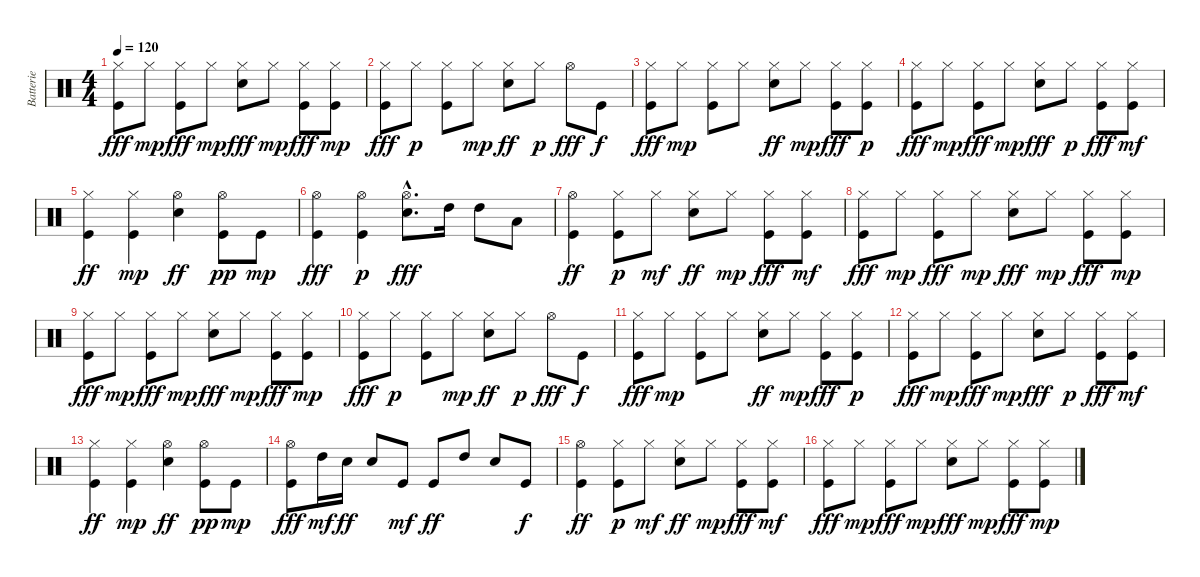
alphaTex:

\track ("Batterie" "Batterie") {instrument percussion}
\staff {score}
\articulation defaults
\ts (4 4)
\tempo 120
\clef neutral
\ks c
("Kick (hit)" "Hi-Hat (closed)").8{dy fff} "Hi-Hat (closed)".8{dy mp} ("Kick (hit)" "Hi-Hat (closed)").8{dy fff} "Hi-Hat (closed)".8{dy mp} ("Electric Snare (hit)" "Hi-Hat (closed)").8{dy fff} "Hi-Hat (closed)".8{dy mp} ("Kick (hit)" "Hi-Hat (closed)").8{dy fff} ("Hi-Hat (closed)" "Kick (hit)").8{dy mp} |
("Kick (hit)" "Hi-Hat (closed)").8{dy fff} "Hi-Hat (closed)".8{dy p} ("Hi-Hat (closed)" "Kick (hit)").8 "Hi-Hat (closed)".8{dy mp} ("Hi-Hat (closed)" "Electric Snare (hit)").8{dy ff} "Hi-Hat (closed)".8{dy p} "Hi-Hat (open)".8{dy fff} "Kick (hit)".8{dy f} |
("Kick (hit)" "Hi-Hat (closed)").8{dy fff} "Hi-Hat (closed)".8{dy mp} ("Hi-Hat (closed)" "Kick (hit)").8 "Hi-Hat (closed)".8 ("Hi-Hat (closed)" "Electric Snare (hit)").8{dy ff} "Hi-Hat (closed)".8{dy mp} ("Kick (hit)" "Hi-Hat (closed)").8{dy fff} ("Kick (hit)" "Hi-Hat (closed)").8{dy p} |
("Kick (hit)" "Hi-Hat (closed)").8{dy fff} "Hi-Hat (closed)".8{dy mp} ("Kick (hit)" "Hi-Hat (closed)").8{dy fff} "Hi-Hat (closed)".8{dy mp} ("Electric Snare (hit)" "Hi-Hat (closed)").8{dy fff} "Hi-Hat (closed)".8{dy p} ("Kick (hit)" "Hi-Hat (closed)").8{dy fff} ("Kick (hit)" "Hi-Hat (closed)").8{dy mf} |
("Kick (hit)" "Hi-Hat (closed)").4{dy ff} ("Hi-Hat (closed)" "Kick (hit)").4{dy mp} ("Hi-Hat (open)" "Electric Snare (hit)").4{dy ff} ("Hi-Hat (open)" "Kick (hit)").8{dy pp} "Kick (hit)".8{dy mp} |
("Kick (hit)" "Hi-Hat (open)").4{dy fff} ("Hi-Hat (open)" "Kick (hit)").4{dy p} ("Electric Snare (hit)"{hac} "Hi-Hat (open)"{hac}).8{d dy fff} "High Tom (hit)".16 "High Tom (hit)".8 "Low Tom (hit)".8 |
("Hi-Hat (open)" "Kick (hit)").4{dy ff} ("Hi-Hat (closed)" "Kick (hit)").8{dy p} "Hi-Hat (closed)".8{dy mf} ("Hi-Hat (closed)" "Electric Snare (hit)").8{dy ff} "Hi-Hat (closed)".8{dy mp} ("Kick (hit)" "Hi-Hat (closed)").8{dy fff} ("Kick (hit)" "Hi-Hat (closed)").8{dy mf} |
("Kick (hit)" "Hi-Hat (closed)").8{dy fff} "Hi-Hat (closed)".8{dy mp} ("Kick (hit)" "Hi-Hat (closed)").8{dy fff} "Hi-Hat (closed)".8{dy mp} ("Electric Snare (hit)" "Hi-Hat (closed)").8{dy fff} "Hi-Hat (closed)".8{dy mp} ("Kick (hit)" "Hi-Hat (closed)").8{dy fff} ("Hi-Hat (closed)" "Kick (hit)").8{dy mp} |
("Kick (hit)" "Hi-Hat (closed)").8{dy fff} "Hi-Hat (closed)".8{dy mp} ("Kick (hit)" "Hi-Hat (closed)").8{dy fff} "Hi-Hat (closed)".8{dy mp} ("Electric Snare (hit)" "Hi-Hat (closed)").8{dy fff} "Hi-Hat (closed)".8{dy mp} ("Kick (hit)" "Hi-Hat (closed)").8{dy fff} ("Hi-Hat (closed)" "Kick (hit)").8{dy mp} |
("Kick (hit)" "Hi-Hat (closed)").8{dy fff} "Hi-Hat (closed)".8{dy p} ("Hi-Hat (closed)" "Kick (hit)").8 "Hi-Hat (closed)".8{dy mp} ("Hi-Hat (closed)" "Electric Snare (hit)").8{dy ff} "Hi-Hat (closed)".8{dy p} "Hi-Hat (open)".8{dy fff} "Kick (hit)".8{dy f} |
("Kick (hit)" "Hi-Hat (closed)").8{dy fff} "Hi-Hat (closed)".8{dy mp} ("Hi-Hat (closed)" "Kick (hit)").8 "Hi-Hat (closed)".8 ("Hi-Hat (closed)" "Electric Snare (hit)").8{dy ff} "Hi-Hat (closed)".8{dy mp} ("Kick (hit)" "Hi-Hat (closed)").8{dy fff} ("Kick (hit)" "Hi-Hat (closed)").8{dy p} |
("Kick (hit)" "Hi-Hat (closed)").8{dy fff} "Hi-Hat (closed)".8{dy mp} ("Kick (hit)" "Hi-Hat (closed)").8{dy fff} "Hi-Hat (closed)".8{dy mp} ("Electric Snare (hit)" "Hi-Hat (closed)").8{dy fff} "Hi-Hat (closed)".8{dy p} ("Kick (hit)" "Hi-Hat (closed)").8{dy fff} ("Kick (hit)" "Hi-Hat (closed)").8{dy mf} |
("Kick (hit)" "Hi-Hat (closed)").4{dy ff} ("Hi-Hat (closed)" "Kick (hit)").4{dy mp} ("Hi-Hat (open)" "Electric Snare (hit)").4{dy ff} ("Hi-Hat (open)" "Kick (hit)").8{dy pp} "Kick (hit)".8{dy mp} |
("Kick (hit)" "Hi-Hat (open)").8{dy fff} "High Tom (hit)".16{dy mf} "Electric Snare (hit)".16{dy ff} "Electric Snare (hit)".8 "Kick (hit)".8{dy mf} "Kick (hit)".8{dy ff} "High Tom (hit)".8 "Electric Snare (hit)".8 "Kick (hit)".8{dy f} |
("Hi-Hat (open)" "Kick (hit)").4{dy ff} ("Hi-Hat (closed)" "Kick (hit)").8{dy p} "Hi-Hat (closed)".8{dy mf} ("Hi-Hat (closed)" "Electric Snare (hit)").8{dy ff} "Hi-Hat (closed)".8{dy mp} ("Kick (hit)" "Hi-Hat (closed)").8{dy fff} ("Kick (hit)" "Hi-Hat (closed)").8{dy mf} |
("Kick (hit)" "Hi-Hat (closed)").8{dy fff} "Hi-Hat (closed)".8{dy mp} ("Kick (hit)" "Hi-Hat (closed)").8{dy fff} "Hi-Hat (closed)".8{dy mp} ("Electric Snare (hit)" "Hi-Hat (closed)").8{dy fff} "Hi-Hat (closed)".8{dy mp} ("Kick (hit)" "Hi-Hat (closed)").8{dy fff} ("Hi-Hat (closed)" "Kick (hit)").8{dy mp}
